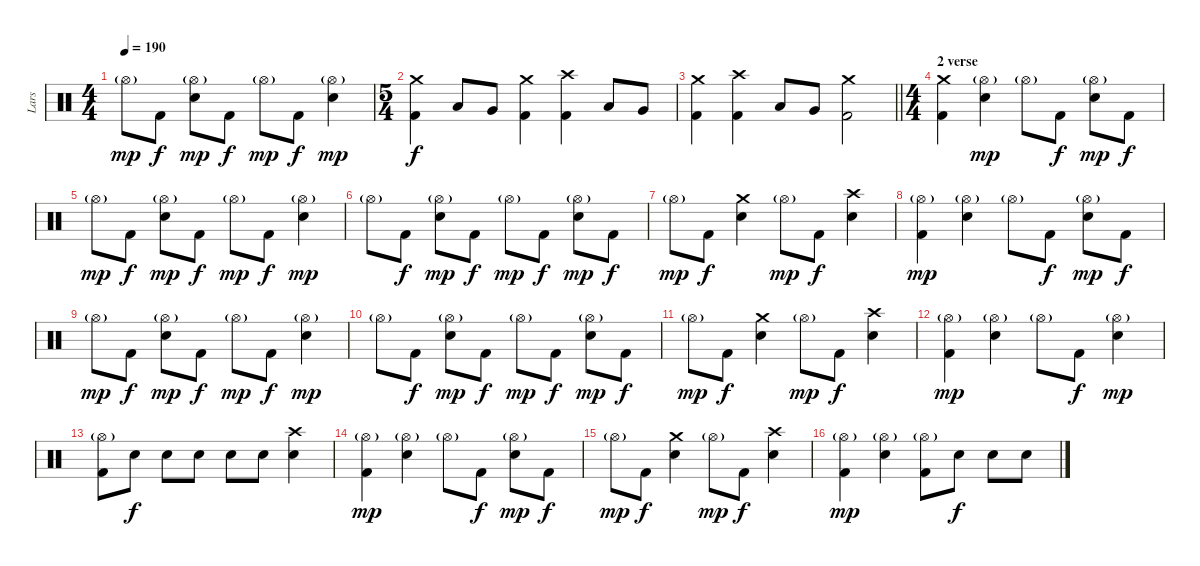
\track ("Lars" "Lars") {instrument percussion}
\staff {score}
\articulation defaults
\ts (4 4)
\tempo 190
\clef neutral
\ks c "Hi-Hat (open)"{g}.8{dy mp} "Kick (hit) 2".8{dy f}
("Hi-Hat (open)"{g} "Electric Snare (hit)").8{dy mp} "Kick (hit) 2".8{dy f} "Hi-Hat (open)"{g}.8{dy mp} "Kick (hit) 2".8{dy f} ("Hi-Hat (open)"{g} "Electric Snare (hit)").4{dy mp} |
\ts (5 4)
("Crash medium (hit)" "Kick (hit) 2").4{dy f} "Low Tom (hit)".8 "Very Low Tom (hit)".8 ("Crash medium (hit)" "Kick (hit) 2").4 ("Crash high (hit)" "Kick (hit) 2").4 "Low Tom (hit)".8 "Very Low Tom (hit)".8 |
\barLineRight lightlight
("Crash medium (hit)" "Kick (hit) 2").4 ("Crash high (hit)" "Kick (hit) 2").4 "Low Tom (hit)".8 "Very Low Tom (hit)".8 ("Crash medium (hit)" "Kick (hit) 2").2 |
\ts (4 4)
\section ("" "2 verse")
("Crash medium (hit)" "Kick (hit) 2").4 ("Hi-Hat (open)"{g} "Electric Snare (hit)").4{dy mp} "Hi-Hat (open)"{g}.8 "Kick (hit) 2".8{dy f} ("Hi-Hat (open)"{g} "Electric Snare (hit)").8{dy mp} "Kick (hit) 2".8{dy f} |
"Hi-Hat (open)"{g}.8{dy mp} "Kick (hit) 2".8{dy f} ("Hi-Hat (open)"{g} "Electric Snare (hit)").8{dy mp} "Kick (hit) 2".8{dy f} "Hi-Hat (open)"{g}.8{dy mp} "Kick (hit) 2".8{dy f} ("Hi-Hat (open)"{g} "Electric Snare (hit)").4{dy mp} |
"Hi-Hat (open)"{g}.8 "Kick (hit) 2".8{dy f} ("Hi-Hat (open)"{g} "Electric Snare (hit)").8{dy mp} "Kick (hit) 2".8{dy f} "Hi-Hat (open)"{g}.8{dy mp} "Kick (hit) 2".8{dy f} ("Hi-Hat (open)"{g} "Electric Snare (hit)").8{dy mp} "Kick (hit) 2".8{dy f} |
"Hi-Hat (open)"{g}.8{dy mp} "Kick (hit) 2".8{dy f} ("Crash medium (hit)" "Electric Snare (hit)").4 "Hi-Hat (open)"{g}.8{dy mp} "Kick (hit) 2".8{dy f} ("Crash high (hit)" "Electric Snare (hit)").4 |
("Hi-Hat (open)"{g} "Kick (hit) 2").4{dy mp} ("Hi-Hat (open)"{g} "Electric Snare (hit)").4 "Hi-Hat (open)"{g}.8 "Kick (hit) 2".8{dy f} ("Hi-Hat (open)"{g} "Electric Snare (hit)").8{dy mp} "Kick (hit) 2".8{dy f} |
"Hi-Hat (open)"{g}.8{dy mp} "Kick (hit) 2".8{dy f} ("Hi-Hat (open)"{g} "Electric Snare (hit)").8{dy mp} "Kick (hit) 2".8{dy f} "Hi-Hat (open)"{g}.8{dy mp} "Kick (hit) 2".8{dy f} ("Hi-Hat (open)"{g} "Electric Snare (hit)").4{dy mp} |
"Hi-Hat (open)"{g}.8 "Kick (hit) 2".8{dy f} ("Hi-Hat (open)"{g} "Electric Snare (hit)").8{dy mp} "Kick (hit) 2".8{dy f} "Hi-Hat (open)"{g}.8{dy mp} "Kick (hit) 2".8{dy f} ("Hi-Hat (open)"{g} "Electric Snare (hit)").8{dy mp} "Kick (hit) 2".8{dy f} |
"Hi-Hat (open)"{g}.8{dy mp} "Kick (hit) 2".8{dy f} ("Crash medium (hit)" "Electric Snare (hit)").4 "Hi-Hat (open)"{g}.8{dy mp} "Kick (hit) 2".8{dy f} ("Crash high (hit)" "Electric Snare (hit)").4 |
("Hi-Hat (open)"{g} "Kick (hit) 2").4{dy mp} ("Hi-Hat (open)"{g} "Electric Snare (hit)").4 "Hi-Hat (open)"{g}.8 "Kick (hit) 2".8{dy f} ("Hi-Hat (open)"{g} "Electric Snare (hit)").4{dy mp} |
("Hi-Hat (open)"{g} "Kick (hit) 2").8 "Electric Snare (hit)".8{dy f} "Electric Snare (hit)".8 "Electric Snare (hit)".8 "Electric Snare (hit)".8 "Electric Snare (hit)".8 ("Crash high (hit)" "Electric Snare (hit)").4 |
("Hi-Hat (open)"{g} "Kick (hit) 2").4{dy mp} ("Hi-Hat (open)"{g} "Electric Snare (hit)").4 "Hi-Hat (open)"{g}.8 "Kick (hit) 2".8{dy f} ("Hi-Hat (open)"{g} "Electric Snare (hit)").8{dy mp} "Kick (hit) 2".8{dy f} |
"Hi-Hat (open)"{g}.8{dy mp} "Kick (hit) 2".8{dy f} ("Crash medium (hit)" "Electric Snare (hit)").4 "Hi-Hat (open)"{g}.8{dy mp} "Kick (hit) 2".8{dy f} ("Crash high (hit)" "Electric Snare (hit)").4 |
("Hi-Hat (open)"{g} "Kick (hit) 2").4{dy mp} ("Hi-Hat (open)"{g} "Electric Snare (hit)").4 ("Hi-Hat (open)"{g} "Kick (hit) 2").8 "Electric Snare (hit)".8{dy f} "Electric Snare (hit)".8 "Electric Snare (hit)".8
